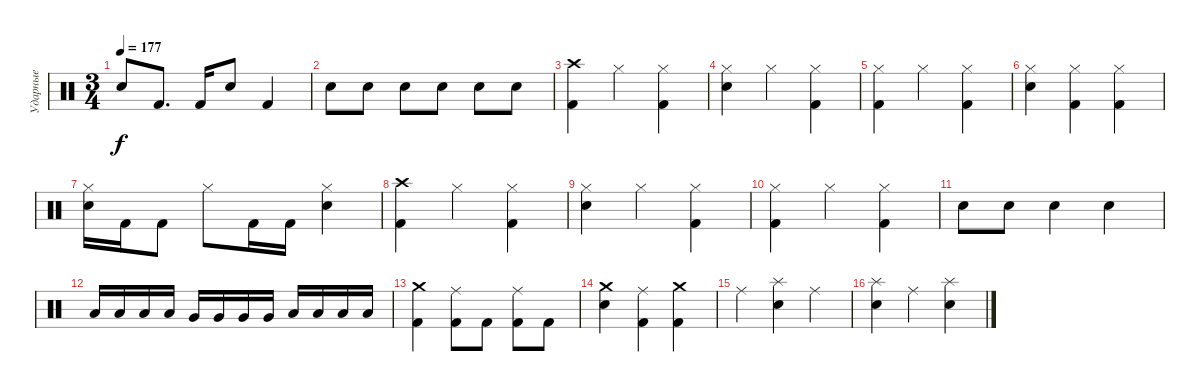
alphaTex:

\track ("Ударные" "Ударные") {instrument percussion}
\staff {score}
\articulation defaults
\ts (3 4)
\tempo 177
\clef neutral
\ks c "Snare (hit) 2".8{dy f} "Kick (hit) 2".8{d} "Kick (hit) 2".16 "Snare (hit) 2".8 "Kick (hit) 2".4
|
"Snare (hit) 2".8 "Snare (hit) 2".8 "Snare (hit) 2".8 "Snare (hit) 2".8 "Snare (hit) 2".8 "Snare (hit) 2".8 |
("Crash high (hit)" "Kick (hit) 2").4 "Hi-Hat (closed)".4 ("Hi-Hat (closed)" "Kick (hit) 2").4 |
("Hi-Hat (closed)" "Snare (hit) 2").4 "Hi-Hat (closed)".4 ("Hi-Hat (closed)" "Kick (hit) 2").4 |
("Hi-Hat (closed)" "Kick (hit) 2").4 "Hi-Hat (closed)".4 ("Hi-Hat (closed)" "Kick (hit) 2").4 |
("Hi-Hat (closed)" "Snare (hit) 2").4 ("Hi-Hat (closed)" "Kick (hit) 2").4 ("Hi-Hat (closed)" "Kick (hit) 2").4 |
("Hi-Hat (closed)" "Snare (hit) 2").16 "Kick (hit) 2".16 "Kick (hit) 2".8 "Hi-Hat (closed)".8 "Kick (hit) 2".16 "Kick (hit) 2".16 ("Hi-Hat (closed)" "Snare (hit) 2").4 |
("Crash high (hit)" "Kick (hit) 2").4 "Hi-Hat (closed)".4 ("Hi-Hat (closed)" "Kick (hit) 2").4 |
("Hi-Hat (closed)" "Snare (hit) 2").4 "Hi-Hat (closed)".4 ("Hi-Hat (closed)" "Kick (hit) 2").4 |
("Hi-Hat (closed)" "Kick (hit) 2").4 "Hi-Hat (closed)".4 ("Hi-Hat (closed)" "Kick (hit) 2").4 |
"Snare (hit) 2".8 "Snare (hit) 2".8 "Snare (hit) 2".4 "Snare (hit) 2".4 |
"Low Tom (hit)".16 "Low Tom (hit)".16 "Low Tom (hit)".16 "Low Tom (hit)".16 "Very Low Tom (hit)".16 "Very Low Tom (hit)".16 "Very Low Tom (hit)".16 "Very Low Tom (hit)".16 "Low Floor Tom (hit)".16 "Low Floor Tom (hit)".16 "Low Floor Tom (hit)".16 "Low Floor Tom (hit)".16 |
("Crash medium (hit)" "Kick (hit) 2").4 ("Ride (middle)" "Kick (hit) 2").8 "Kick (hit) 2".8 ("Ride (middle)" "Kick (hit) 2").8 "Kick (hit) 2".8 |
("Crash medium (hit)" "Snare (hit) 2").4 ("Ride (middle)" "Kick (hit) 2").4 ("Crash medium (hit)" "Kick (hit) 2").4 |
"Ride (middle)".4 ("Splash (hit)" "Snare (hit) 2").4 "Ride (middle)".4 |
("Splash (hit)" "Snare (hit) 2").4 "Ride (middle)".4 ("Splash (hit)" "Snare (hit) 2").4
